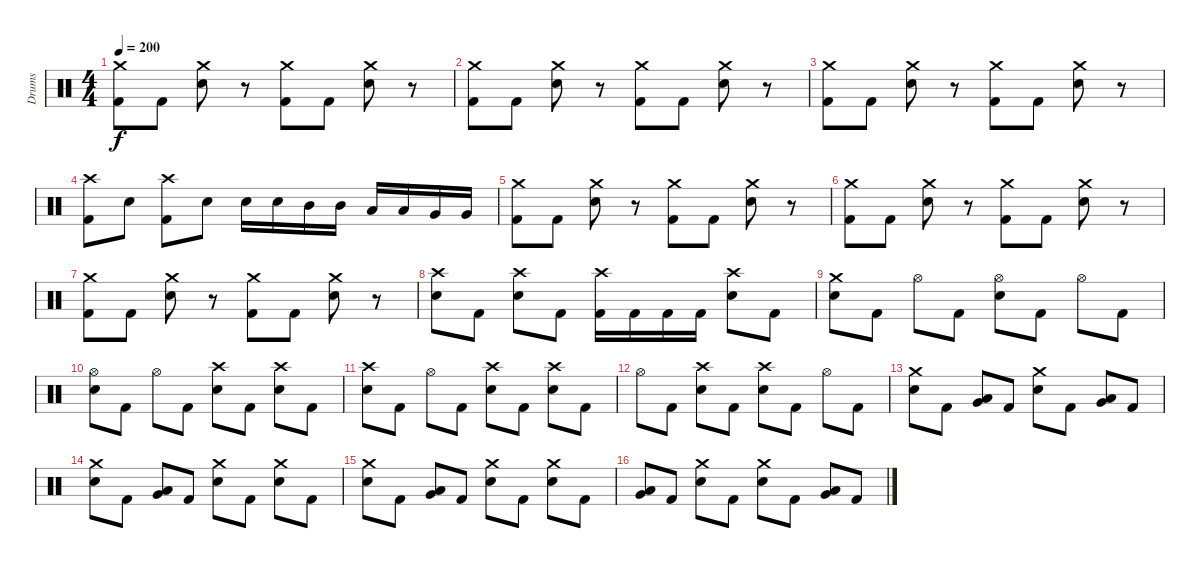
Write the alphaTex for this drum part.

\track ("Drums" "Drums") {instrument percussion}
\staff {score}
\articulation defaults
\ts (4 4)
\tempo 200
\clef neutral
\ks c
("Crash medium (hit)" "Kick (hit) 2").8{dy f} "Kick (hit) 2".8 ("Crash medium (hit)" "Electric Snare (hit)").8 r.8 ("Crash medium (hit)" "Kick (hit) 2").8 "Kick (hit) 2".8 ("Crash medium (hit)" "Electric Snare (hit)").8 r.8 |
("Crash medium (hit)" "Kick (hit) 2").8 "Kick (hit) 2".8 ("Crash medium (hit)" "Electric Snare (hit)").8 r.8 ("Crash medium (hit)" "Kick (hit) 2").8 "Kick (hit) 2".8 ("Crash medium (hit)" "Electric Snare (hit)").8 r.8 |
("Crash medium (hit)" "Kick (hit) 2").8 "Kick (hit) 2".8 ("Crash medium (hit)" "Electric Snare (hit)").8 r.8 ("Crash medium (hit)" "Kick (hit) 2").8 "Kick (hit) 2".8 ("Crash medium (hit)" "Electric Snare (hit)").8 r.8 |
("Crash high (hit)" "Kick (hit) 2").8 "Electric Snare (hit)".8 ("Crash high (hit)" "Kick (hit) 2").8 "Electric Snare (hit)".8 "Electric Snare (hit)".16 "Electric Snare (hit)".16 "Mid Tom (hit)".16 "Mid Tom (hit)".16 "Low Tom (hit)".16 "Low Tom (hit)".16 "Very Low Tom (hit)".16 "Very Low Tom (hit)".16 |
("Crash medium (hit)" "Kick (hit) 2").8 "Kick (hit) 2".8 ("Crash medium (hit)" "Electric Snare (hit)").8 r.8 ("Crash medium (hit)" "Kick (hit) 2").8 "Kick (hit) 2".8 ("Crash medium (hit)" "Electric Snare (hit)").8 r.8 |
("Crash medium (hit)" "Kick (hit) 2").8 "Kick (hit) 2".8 ("Crash medium (hit)" "Electric Snare (hit)").8 r.8 ("Crash medium (hit)" "Kick (hit) 2").8 "Kick (hit) 2".8 ("Crash medium (hit)" "Electric Snare (hit)").8 r.8 |
("Crash medium (hit)" "Kick (hit) 2").8 "Kick (hit) 2".8 ("Crash medium (hit)" "Electric Snare (hit)").8 r.8 ("Crash medium (hit)" "Kick (hit) 2").8 "Kick (hit) 2".8 ("Crash medium (hit)" "Electric Snare (hit)").8 r.8 |
("Crash high (hit)" "Electric Snare (hit)").8 "Kick (hit) 2".8 ("Crash high (hit)" "Electric Snare (hit)").8 "Kick (hit) 2".8 ("Crash high (hit)" "Kick (hit) 2").16 "Kick (hit) 2".16 "Kick (hit) 2".16 "Kick (hit) 2".16 ("Crash high (hit)" "Electric Snare (hit)").8 "Kick (hit) 2".8 |
("Crash medium (hit)" "Electric Snare (hit)").8 "Kick (hit) 2".8 "Hi-Hat (open)".8 "Kick (hit) 2".8 ("Hi-Hat (open)" "Electric Snare (hit)").8 "Kick (hit) 2".8 "Hi-Hat (open)".8 "Kick (hit) 2".8 |
("Hi-Hat (open)" "Electric Snare (hit)").8 "Kick (hit) 2".8 "Hi-Hat (open)".8 "Kick (hit) 2".8 ("Crash high (hit)" "Electric Snare (hit)").8 "Kick (hit) 2".8 ("Crash high (hit)" "Electric Snare (hit)").8 "Kick (hit) 2".8 |
("Crash high (hit)" "Electric Snare (hit)").8 "Kick (hit) 2".8 "Hi-Hat (open)".8 "Kick (hit) 2".8 ("Crash high (hit)" "Electric Snare (hit)").8 "Kick (hit) 2".8 ("Crash high (hit)" "Electric Snare (hit)").8 "Kick (hit) 2".8 |
"Hi-Hat (open)".8 "Kick (hit) 2".8 ("Crash high (hit)" "Electric Snare (hit)").8 "Kick (hit) 2".8 ("Crash high (hit)" "Electric Snare (hit)").8 "Kick (hit) 2".8 "Hi-Hat (open)".8 "Kick (hit) 2".8 |
("Crash medium (hit)" "Electric Snare (hit)").8 "Kick (hit) 2".8 ("Very Low Tom (hit)" "Low Tom (hit)").8 "Kick (hit) 2".8 ("Crash medium (hit)" "Electric Snare (hit)").8 "Kick (hit) 2".8 ("Very Low Tom (hit)" "Low Tom (hit)").8 "Kick (hit) 2".8 |
("Crash medium (hit)" "Electric Snare (hit)").8 "Kick (hit) 2".8 ("Very Low Tom (hit)" "Low Tom (hit)").8 "Kick (hit) 2".8 ("Crash medium (hit)" "Electric Snare (hit)").8 "Kick (hit) 2".8 ("Crash medium (hit)" "Electric Snare (hit)").8 "Kick (hit) 2".8 |
("Crash medium (hit)" "Electric Snare (hit)").8 "Kick (hit) 2".8 ("Very Low Tom (hit)" "Low Tom (hit)").8 "Kick (hit) 2".8 ("Crash medium (hit)" "Electric Snare (hit)").8 "Kick (hit) 2".8 ("Crash medium (hit)" "Electric Snare (hit)").8 "Kick (hit) 2".8 |
("Very Low Tom (hit)" "Low Tom (hit)").8 "Kick (hit) 2".8 ("Crash medium (hit)" "Electric Snare (hit)").8 "Kick (hit) 2".8 ("Crash medium (hit)" "Electric Snare (hit)").8 "Kick (hit) 2".8 ("Very Low Tom (hit)" "Low Tom (hit)").8 "Kick (hit) 2".8
